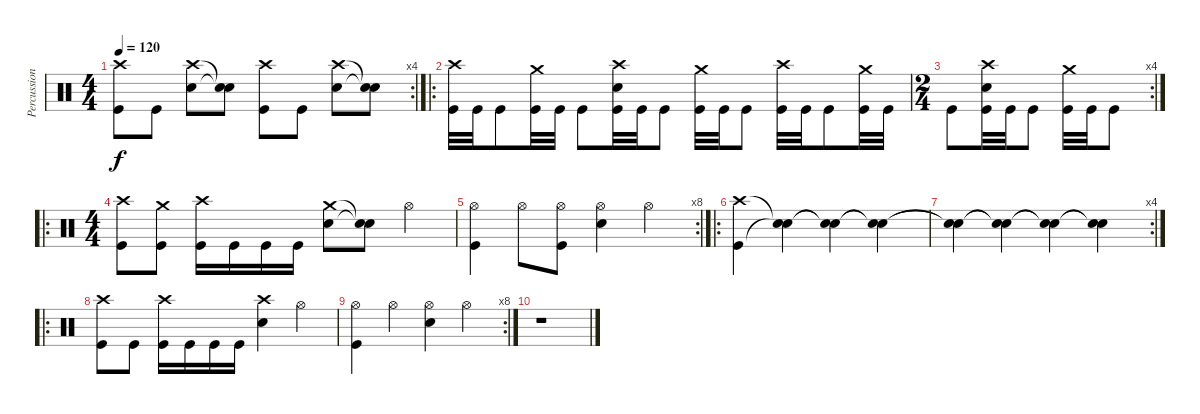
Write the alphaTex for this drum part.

\track ("Percussion" "Percussion") {instrument percussion}
\staff {score}
\articulation defaults
\rc 4
\ts (4 4)
\tempo 120
\clef neutral
\ks c
("Crash high (hit)" "Kick (hit)").8{dy f} "Kick (hit)".8 ("Crash high (hit)" "Electric Snare (hit)").8 ("Snare (hit)"{t} "Snare (hit)"{t}).8 ("Crash high (hit)" "Kick (hit)").8 "Kick (hit)".8 ("Crash high (hit)" "Electric Snare (hit)").8 ("Snare (hit)"{t} "Snare (hit)"{t}).8 |
\ro
("Crash high (hit)" "Kick (hit)").32 "Kick (hit)".32 "Kick (hit)".8 ("Crash medium (hit)" "Kick (hit)").32 "Kick (hit)".32 "Kick (hit)".8 ("Crash high (hit)" "Electric Snare (hit)" "Kick (hit)").32 "Kick (hit)".32 "Kick (hit)".8 ("Crash medium (hit)" "Kick (hit)").32 "Kick (hit)".32 "Kick (hit)".8 ("Crash high (hit)" "Kick (hit)").32 "Kick (hit)".32 "Kick (hit)".8 ("Crash medium (hit)" "Kick (hit)").32 "Kick (hit)".32 |
\rc 4
\ts (2 4)
"Kick (hit)".8 ("Crash high (hit)" "Electric Snare (hit)" "Kick (hit)").32 "Kick (hit)".32 "Kick (hit)".8 ("Crash medium (hit)" "Kick (hit)").32 "Kick (hit)".32 "Kick (hit)".8 |
\ro
\ts (4 4)
("Crash high (hit)" "Kick (hit)").8 ("Crash medium (hit)" "Kick (hit)").8 ("Crash high (hit)" "Kick (hit)").16 "Kick (hit)".16 "Kick (hit)".16 "Kick (hit)".16 ("Crash medium (hit)" "Electric Snare (hit)").8 ("Snare (hit)"{t} "Snare (hit)"{t}).8 "Hi-Hat (open)".4 |
\rc 8
("Hi-Hat (open)" "Kick (hit)").4 "Hi-Hat (open)".8 ("Hi-Hat (open)" "Kick (hit)").8 ("Hi-Hat (open)" "Electric Snare (hit)").4 "Hi-Hat (open)".4 |
\ro
("Crash high (hit)" "Kick (hit)").4 ("Snare (hit)"{t} "Snare (hit)"{t}).4 ("Snare (hit)"{t} "Snare (hit)"{t}).4 ("Snare (hit)"{t} "Snare (hit)"{t}).4 |
\rc 4
("Snare (hit)"{t} "Snare (hit)"{t}).4 ("Snare (hit)"{t} "Snare (hit)"{t}).4 ("Snare (hit)"{t} "Snare (hit)"{t}).4 ("Snare (hit)"{t} "Snare (hit)"{t}).4 |
\ro
("Crash high (hit)" "Kick (hit)").8 "Kick (hit)".8 ("Crash high (hit)" "Kick (hit)").16 "Kick (hit)".16 "Kick (hit)".16 "Kick (hit)".16 ("Crash high (hit)" "Electric Snare (hit)").4 "Hi-Hat (open)".4 |
\rc 8
("Hi-Hat (open)" "Kick (hit)").4 "Hi-Hat (open)".4 ("Hi-Hat (open)" "Electric Snare (hit)").4 "Hi-Hat (open)".4 |
r.1
